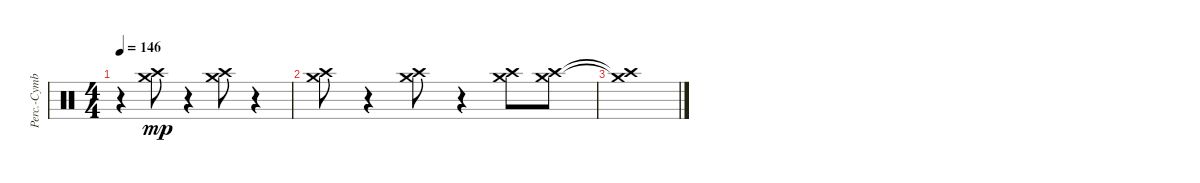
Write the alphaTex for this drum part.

\track ("Perc.-Cymbals" "Perc.-Cymb") {instrument percussion}
\staff {score}
\articulation defaults
\ts (4 4)
\tempo 146
\clef neutral
\ks c
r.4{dy mp} ("Crash high (hit)" "Crash medium (hit)").8 r.4 ("Crash high (hit)" "Crash medium (hit)").8 r.4 |
("Crash high (hit)" "Crash medium (hit)").8 r.4 ("Crash high (hit)" "Crash medium (hit)").8 r.4 ("Crash high (hit)" "Crash medium (hit)").8 ("Crash high (hit)" "Crash medium (hit)").8 |
("Crash high (hit)"{t} "Crash medium (hit)"{t}).1
